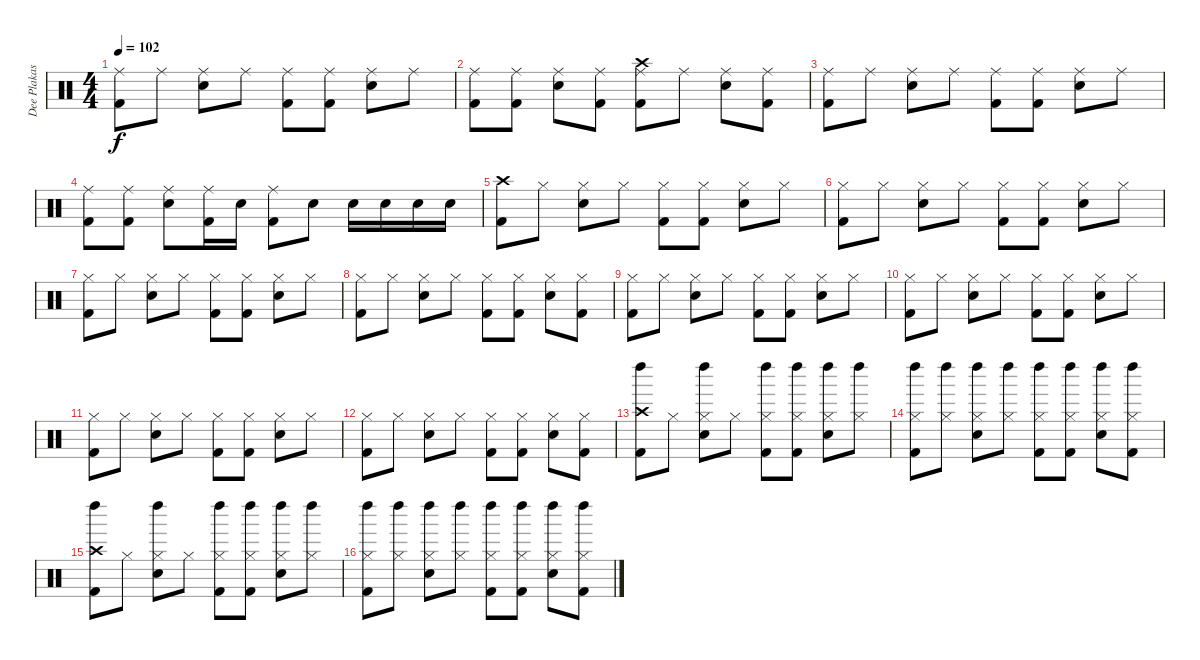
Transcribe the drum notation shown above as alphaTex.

\track ("Dee Plakas" "Dee Plakas") {instrument percussion}
\staff {score}
\articulation defaults
\ts (4 4)
\tempo 102
\clef neutral
\ks c
("Ride (middle)" "Kick (hit) 2").8{dy f} "Ride (middle)".8 ("Ride (middle)" "Snare (hit) 2").8 "Ride (middle)".8 ("Ride (middle)" "Kick (hit) 2").8 ("Ride (middle)" "Kick (hit) 2").8 ("Ride (middle)" "Snare (hit) 2").8 "Ride (middle)".8 |
("Ride (middle)" "Kick (hit) 2").8 ("Ride (middle)" "Kick (hit) 2").8 ("Ride (middle)" "Snare (hit) 2").8 ("Ride (middle)" "Kick (hit) 2").8 ("Ride (middle)" "Crash high (hit)" "Kick (hit) 2").8 "Ride (middle)".8 ("Ride (middle)" "Snare (hit) 2").8 ("Ride (middle)" "Kick (hit) 2").8 |
("Ride (middle)" "Kick (hit) 2").8 "Ride (middle)".8 ("Ride (middle)" "Snare (hit) 2").8 "Ride (middle)".8 ("Ride (middle)" "Kick (hit) 2").8 ("Ride (middle)" "Kick (hit) 2").8 ("Ride (middle)" "Snare (hit) 2").8 "Ride (middle)".8 |
("Ride (middle)" "Kick (hit) 2").8 ("Ride (middle)" "Kick (hit) 2").8 ("Ride (middle)" "Snare (hit) 2").8 ("Ride (middle)" "Kick (hit) 2").16 "Snare (hit) 2".16 ("Ride (middle)" "Kick (hit) 2").8 "Snare (hit) 2".8 "Snare (hit) 2".16 "Snare (hit) 2".16 "Snare (hit) 2".16 "Snare (hit) 2".16 |
("Crash high (hit)" "Kick (hit) 2").8 "Hi-Hat (closed)".8 ("Hi-Hat (closed)" "Snare (hit) 2").8 "Hi-Hat (closed)".8 ("Hi-Hat (closed)" "Kick (hit) 2").8 ("Hi-Hat (closed)" "Kick (hit) 2").8 ("Hi-Hat (closed)" "Snare (hit) 2").8 "Hi-Hat (closed)".8 |
("Hi-Hat (closed)" "Kick (hit) 2").8 "Hi-Hat (closed)".8 ("Hi-Hat (closed)" "Snare (hit) 2").8 "Hi-Hat (closed)".8 ("Hi-Hat (closed)" "Kick (hit) 2").8 ("Hi-Hat (closed)" "Kick (hit) 2").8 ("Hi-Hat (closed)" "Snare (hit) 2").8 "Hi-Hat (closed)".8 |
("Hi-Hat (closed)" "Kick (hit) 2").8 "Hi-Hat (closed)".8 ("Hi-Hat (closed)" "Snare (hit) 2").8 "Hi-Hat (closed)".8 ("Hi-Hat (closed)" "Kick (hit) 2").8 ("Hi-Hat (closed)" "Kick (hit) 2").8 ("Hi-Hat (closed)" "Snare (hit) 2").8 "Hi-Hat (closed)".8 |
("Hi-Hat (closed)" "Kick (hit) 2").8 "Hi-Hat (closed)".8 ("Hi-Hat (closed)" "Snare (hit) 2").8 "Hi-Hat (closed)".8 ("Hi-Hat (closed)" "Kick (hit) 2").8 ("Hi-Hat (closed)" "Kick (hit) 2").8 ("Hi-Hat (closed)" "Snare (hit) 2").8 ("Hi-Hat (closed)" "Kick (hit) 2").8 |
("Hi-Hat (closed)" "Kick (hit) 2").8 "Hi-Hat (closed)".8 ("Hi-Hat (closed)" "Snare (hit) 2").8 "Hi-Hat (closed)".8 ("Hi-Hat (closed)" "Kick (hit) 2").8 ("Hi-Hat (closed)" "Kick (hit) 2").8 ("Hi-Hat (closed)" "Snare (hit) 2").8 "Hi-Hat (closed)".8 |
("Hi-Hat (closed)" "Kick (hit) 2").8 "Hi-Hat (closed)".8 ("Hi-Hat (closed)" "Snare (hit) 2").8 "Hi-Hat (closed)".8 ("Hi-Hat (closed)" "Kick (hit) 2").8 ("Hi-Hat (closed)" "Kick (hit) 2").8 ("Hi-Hat (closed)" "Snare (hit) 2").8 "Hi-Hat (closed)".8 |
("Hi-Hat (closed)" "Kick (hit) 2").8 "Hi-Hat (closed)".8 ("Hi-Hat (closed)" "Snare (hit) 2").8 "Hi-Hat (closed)".8 ("Hi-Hat (closed)" "Kick (hit) 2").8 ("Hi-Hat (closed)" "Kick (hit) 2").8 ("Hi-Hat (closed)" "Snare (hit) 2").8 "Hi-Hat (closed)".8 |
("Hi-Hat (closed)" "Kick (hit) 2").8 "Hi-Hat (closed)".8 ("Hi-Hat (closed)" "Snare (hit) 2").8 "Hi-Hat (closed)".8 ("Hi-Hat (closed)" "Kick (hit) 2").8 ("Hi-Hat (closed)" "Kick (hit) 2").8 ("Hi-Hat (closed)" "Snare (hit) 2").8 ("Hi-Hat (closed)" "Kick (hit) 2").8 |
("Crash high (hit)" "Left Maraca (hit)" "Kick (hit) 2").8 "Hi-Hat (closed)".8 ("Hi-Hat (closed)" "Left Maraca (hit)" "Snare (hit) 2").8 "Hi-Hat (closed)".8 ("Hi-Hat (closed)" "Left Maraca (hit)" "Kick (hit) 2").8 ("Hi-Hat (closed)" "Left Maraca (hit)" "Kick (hit) 2").8 ("Hi-Hat (closed)" "Left Maraca (hit)" "Snare (hit) 2").8 ("Hi-Hat (closed)" "Left Maraca (hit)").8 |
("Hi-Hat (closed)" "Left Maraca (hit)" "Kick (hit) 2").8 ("Hi-Hat (closed)" "Left Maraca (hit)").8 ("Hi-Hat (closed)" "Left Maraca (hit)" "Snare (hit) 2").8 ("Hi-Hat (closed)" "Left Maraca (hit)").8 ("Hi-Hat (closed)" "Left Maraca (hit)" "Kick (hit) 2").8 ("Hi-Hat (closed)" "Left Maraca (hit)" "Kick (hit) 2").8 ("Hi-Hat (closed)" "Left Maraca (hit)" "Snare (hit) 2").8 ("Hi-Hat (closed)" "Left Maraca (hit)" "Kick (hit) 2").8 |
("Crash high (hit)" "Left Maraca (hit)" "Kick (hit) 2").8 "Hi-Hat (closed)".8 ("Hi-Hat (closed)" "Left Maraca (hit)" "Snare (hit) 2").8 "Hi-Hat (closed)".8 ("Hi-Hat (closed)" "Left Maraca (hit)" "Kick (hit) 2").8 ("Hi-Hat (closed)" "Left Maraca (hit)" "Kick (hit) 2").8 ("Hi-Hat (closed)" "Left Maraca (hit)" "Snare (hit) 2").8 ("Hi-Hat (closed)" "Left Maraca (hit)").8 |
("Hi-Hat (closed)" "Left Maraca (hit)" "Kick (hit) 2").8 ("Hi-Hat (closed)" "Left Maraca (hit)").8 ("Hi-Hat (closed)" "Left Maraca (hit)" "Snare (hit) 2").8 ("Hi-Hat (closed)" "Left Maraca (hit)").8 ("Hi-Hat (closed)" "Left Maraca (hit)" "Kick (hit) 2").8 ("Hi-Hat (closed)" "Left Maraca (hit)" "Kick (hit) 2").8 ("Hi-Hat (closed)" "Left Maraca (hit)" "Snare (hit) 2").8 ("Hi-Hat (closed)" "Left Maraca (hit)" "Kick (hit) 2").8
